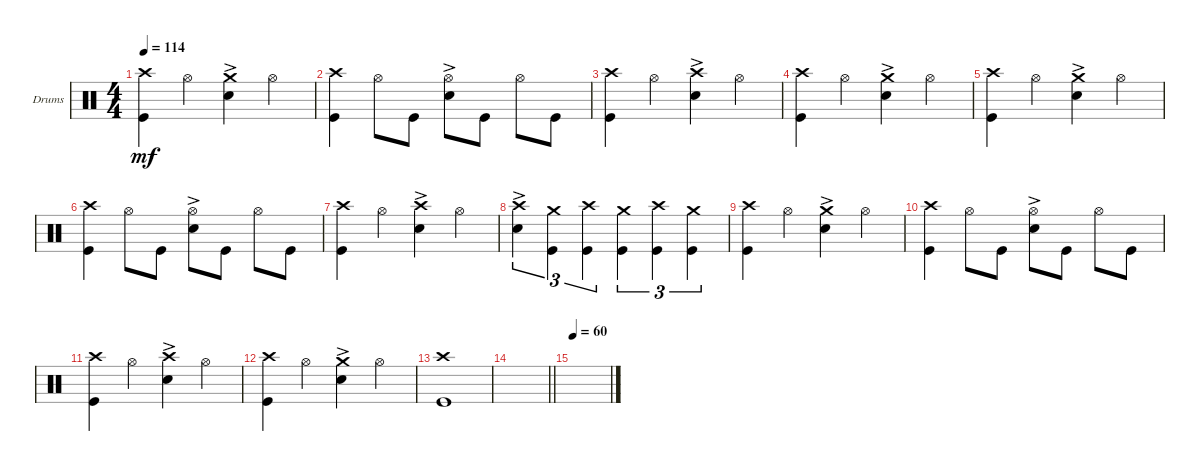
\bracketExtendMode groupsimilarinstruments
\firstSystemTrackNameOrientation horizontal
\otherSystemsTrackNameOrientation horizontal
\track ("Drumkit" "Drums") {instrument percussion}
\staff {score}
\articulation defaults
\ts (4 4)
\tempo 114
\clef neutral
\ks c
("Kick (hit)" "Crash high (hit)").4{dy mf} "Hi-Hat (open)".4 ("Snare (hit) 2"{ac} "Crash medium (hit)").4 "Hi-Hat (open)".4 |
("Kick (hit)" "Crash high (hit)").4 "Hi-Hat (open)".8 "Kick (hit)".8 ("Snare (hit) 2"{ac} "Hi-Hat (open)").8 "Kick (hit)".8 "Hi-Hat (open)".8 "Kick (hit)".8 |
("Kick (hit)" "Crash high (hit)").4 "Hi-Hat (open)".4 ("Snare (hit) 2"{ac} "Crash high (hit)").4 "Hi-Hat (open)".4 |
("Kick (hit)" "Crash high (hit)").4 "Hi-Hat (open)".4 ("Snare (hit) 2"{ac} "Crash medium (hit)").4 "Hi-Hat (open)".4 |
("Kick (hit)" "Crash high (hit)").4 "Hi-Hat (open)".4 ("Snare (hit) 2"{ac} "Crash medium (hit)").4 "Hi-Hat (open)".4 |
("Kick (hit)" "Crash high (hit)").4 "Hi-Hat (open)".8 "Kick (hit)".8 ("Snare (hit) 2"{ac} "Hi-Hat (open)").8 "Kick (hit)".8 "Hi-Hat (open)".8 "Kick (hit)".8 |
("Kick (hit)" "Crash high (hit)").4 "Hi-Hat (open)".4 ("Snare (hit) 2"{ac} "Crash high (hit)").4 "Hi-Hat (open)".4 |
("Crash high (hit)" "Snare (hit) 2"{ac}).4{tu (3 2)} ("Kick (hit)" "Crash medium (hit)").4{tu (3 2)} ("Kick (hit)" "Crash high (hit)").4{tu (3 2)} ("Kick (hit)" "Crash medium (hit)").4{tu (3 2)} ("Kick (hit)" "Crash high (hit)").4{tu (3 2)} ("Kick (hit)" "Crash medium (hit)").4{tu (3 2)} |
("Kick (hit)" "Crash high (hit)").4 "Hi-Hat (open)".4 ("Snare (hit) 2"{ac} "Crash medium (hit)").4 "Hi-Hat (open)".4 |
("Kick (hit)" "Crash high (hit)").4 "Hi-Hat (open)".8 "Kick (hit)".8 ("Snare (hit) 2"{ac} "Hi-Hat (open)").8 "Kick (hit)".8 "Hi-Hat (open)".8 "Kick (hit)".8 |
("Kick (hit)" "Crash high (hit)").4 "Hi-Hat (open)".4 ("Snare (hit) 2"{ac} "Crash high (hit)").4 "Hi-Hat (open)".4 |
("Kick (hit)" "Crash high (hit)").4 "Hi-Hat (open)".4 ("Snare (hit) 2"{ac} "Crash medium (hit)").4 "Hi-Hat (open)".4 |
("Kick (hit)" "Crash high (hit)").1 |
\barLineRight lightlight
|
\tempo 60
